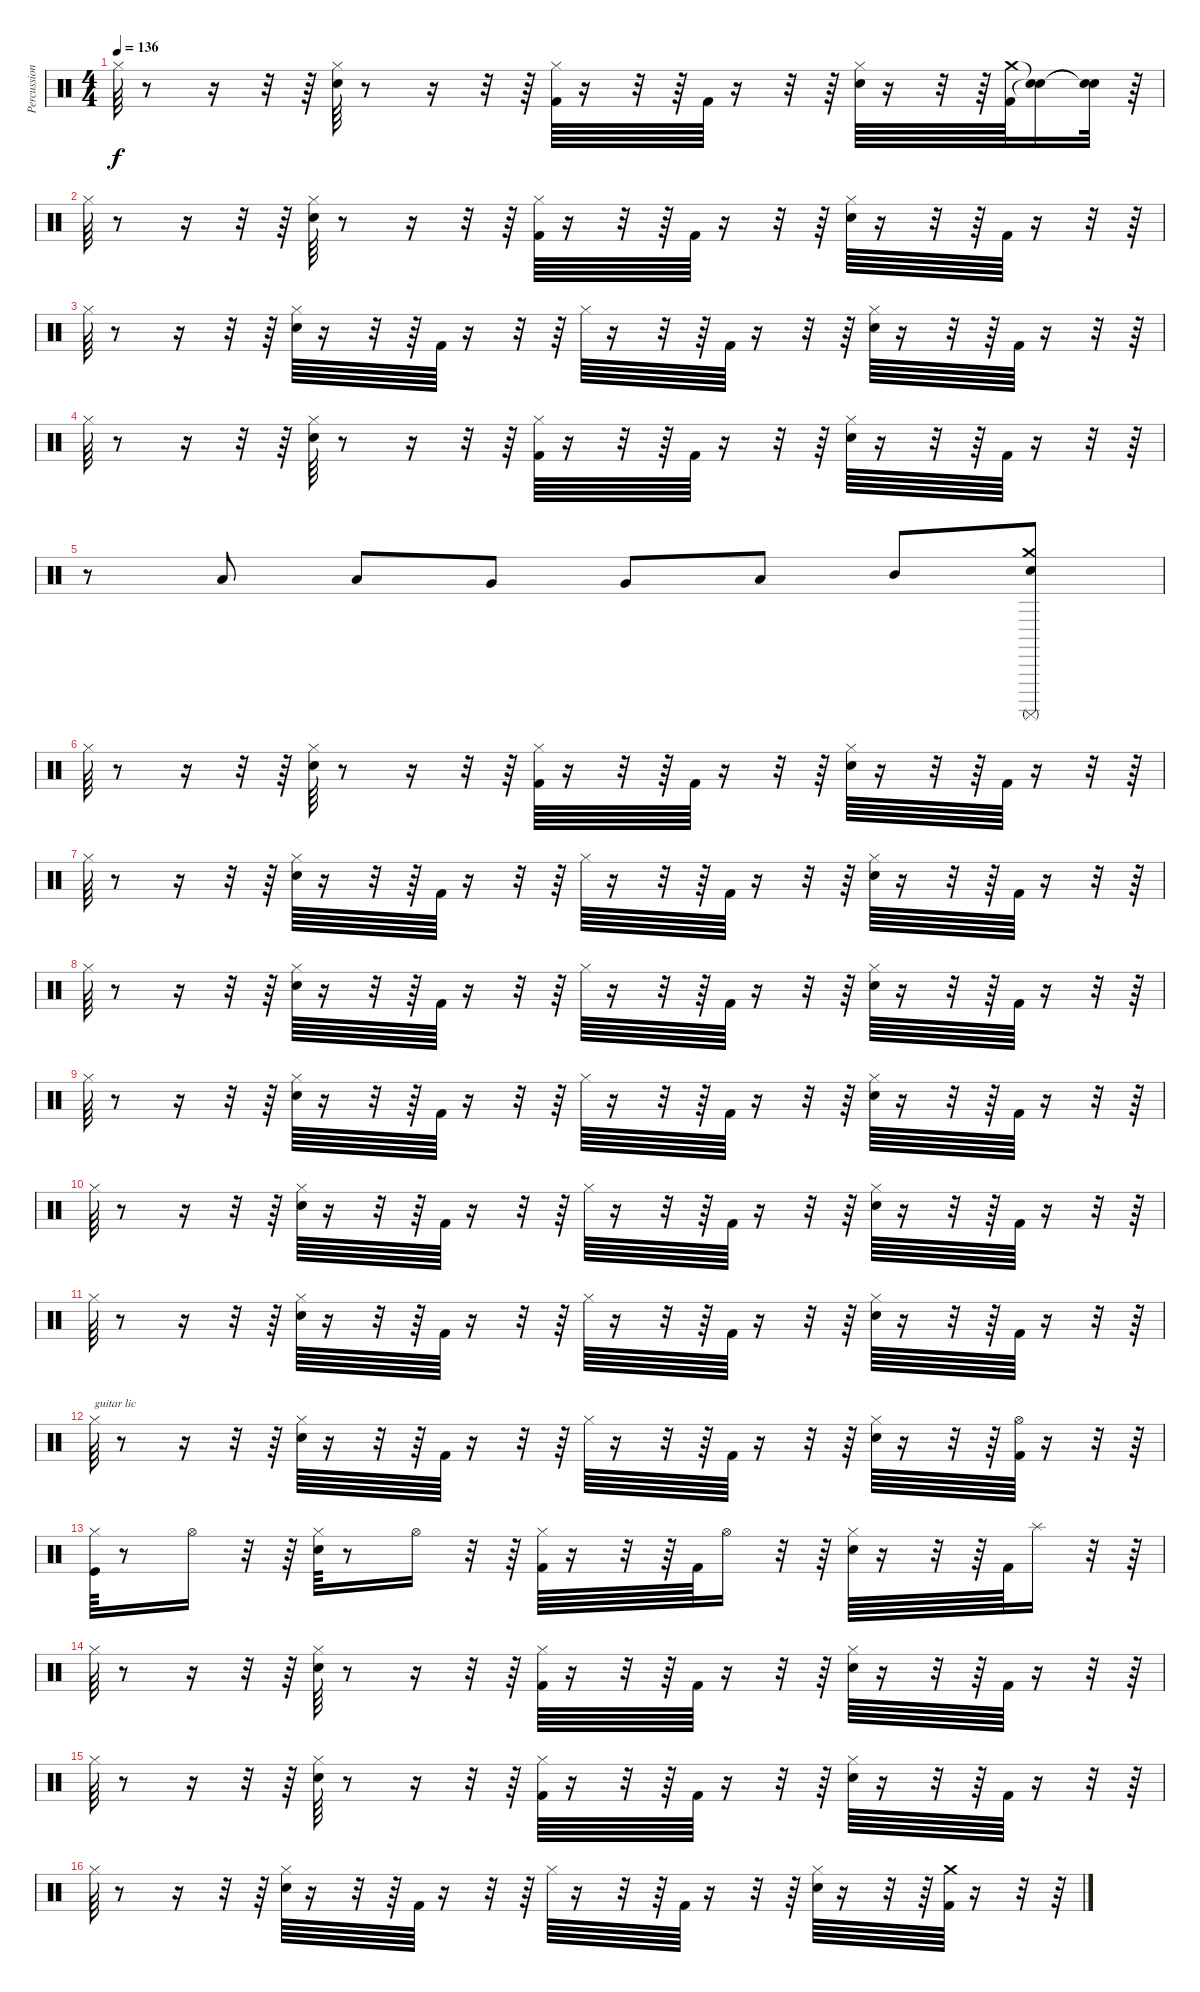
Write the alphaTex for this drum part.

\track ("Percussions" "Percussion") {instrument percussion}
\staff {score}
\articulation defaults
\ts (4 4)
\tempo 136
\clef neutral
\ks c "Hi-Hat (closed)".64{dy f}
r.8 r.16 r.32 r.64 ("Snare (hit) 2" "Hi-Hat (closed)").64 r.8 r.16 r.32 r.64 ("Kick (hit) 2" "Hi-Hat (closed)").64 r.16 r.32 r.64 "Kick (hit) 2".64 r.16 r.32 r.64 ("Snare (hit) 2" "Hi-Hat (closed)").64 r.16 r.32 r.64 ("Kick (hit) 2" "Crash medium (hit)").64 ("Snare (hit)"{t} "Snare (hit)"{t}).16 ("Snare (hit)"{t} "Snare (hit)"{t}).32 r.64 |
"Hi-Hat (closed)".64 r.8 r.16 r.32 r.64 ("Snare (hit) 2" "Hi-Hat (closed)").64 r.8 r.16 r.32 r.64 ("Kick (hit) 2" "Hi-Hat (closed)").64 r.16 r.32 r.64 "Kick (hit) 2".64 r.16 r.32 r.64 ("Snare (hit) 2" "Hi-Hat (closed)").64 r.16 r.32 r.64 "Kick (hit) 2".64 r.16 r.32 r.64 |
"Hi-Hat (closed)".64 r.8 r.16 r.32 r.64 ("Snare (hit) 2" "Hi-Hat (closed)").64 r.16 r.32 r.64 "Kick (hit) 2".64 r.16 r.32 r.64 "Hi-Hat (closed)".64 r.16 r.32 r.64 "Kick (hit) 2".64 r.16 r.32 r.64 ("Snare (hit) 2" "Hi-Hat (closed)").64 r.16 r.32 r.64 "Kick (hit) 2".64 r.16 r.32 r.64 |
"Hi-Hat (closed)".64 r.8 r.16 r.32 r.64 ("Snare (hit) 2" "Hi-Hat (closed)").64 r.8 r.16 r.32 r.64 ("Kick (hit) 2" "Hi-Hat (closed)").64 r.16 r.32 r.64 "Kick (hit) 2".64 r.16 r.32 r.64 ("Snare (hit) 2" "Hi-Hat (closed)").64 r.16 r.32 r.64 "Kick (hit) 2".64 r.16 r.32 r.64 |
r.8 "Low Floor Tom (hit)".8 "Low Floor Tom (hit)".8 "Very Low Tom (hit)".8 "Very Low Tom (hit)".8 "Low Tom (hit)".8 "Mid Tom (hit)".8 ("Snare (hit) 2" "Crash medium (hit)" "Surdo (mute)").8 |
"Hi-Hat (closed)".64 r.8 r.16 r.32 r.64 ("Snare (hit) 2" "Hi-Hat (closed)").64 r.8 r.16 r.32 r.64 ("Kick (hit) 2" "Hi-Hat (closed)").64 r.16 r.32 r.64 "Kick (hit) 2".64 r.16 r.32 r.64 ("Snare (hit) 2" "Hi-Hat (closed)").64 r.16 r.32 r.64 "Kick (hit) 2".64 r.16 r.32 r.64 |
"Hi-Hat (closed)".64 r.8 r.16 r.32 r.64 ("Snare (hit) 2" "Hi-Hat (closed)").64 r.16 r.32 r.64 "Kick (hit) 2".64 r.16 r.32 r.64 "Hi-Hat (closed)".64 r.16 r.32 r.64 "Kick (hit) 2".64 r.16 r.32 r.64 ("Snare (hit) 2" "Hi-Hat (closed)").64 r.16 r.32 r.64 "Kick (hit) 2".64 r.16 r.32 r.64 |
"Hi-Hat (closed)".64 r.8 r.16 r.32 r.64 ("Snare (hit) 2" "Hi-Hat (closed)").64 r.16 r.32 r.64 "Kick (hit) 2".64 r.16 r.32 r.64 "Hi-Hat (closed)".64 r.16 r.32 r.64 "Kick (hit) 2".64 r.16 r.32 r.64 ("Snare (hit) 2" "Hi-Hat (closed)").64 r.16 r.32 r.64 "Kick (hit) 2".64 r.16 r.32 r.64 |
"Hi-Hat (closed)".64 r.8 r.16 r.32 r.64 ("Snare (hit) 2" "Hi-Hat (closed)").64 r.16 r.32 r.64 "Kick (hit) 2".64 r.16 r.32 r.64 "Hi-Hat (closed)".64 r.16 r.32 r.64 "Kick (hit) 2".64 r.16 r.32 r.64 ("Snare (hit) 2" "Hi-Hat (closed)").64 r.16 r.32 r.64 "Kick (hit) 2".64 r.16 r.32 r.64 |
"Hi-Hat (closed)".64 r.8 r.16 r.32 r.64 ("Snare (hit) 2" "Hi-Hat (closed)").64 r.16 r.32 r.64 "Kick (hit) 2".64 r.16 r.32 r.64 "Hi-Hat (closed)".64 r.16 r.32 r.64 "Kick (hit) 2".64 r.16 r.32 r.64 ("Snare (hit) 2" "Hi-Hat (closed)").64 r.16 r.32 r.64 "Kick (hit) 2".64 r.16 r.32 r.64 |
"Hi-Hat (closed)".64 r.8 r.16 r.32 r.64 ("Snare (hit) 2" "Hi-Hat (closed)").64 r.16 r.32 r.64 "Kick (hit) 2".64 r.16 r.32 r.64 "Hi-Hat (closed)".64 r.16 r.32 r.64 "Kick (hit) 2".64 r.16 r.32 r.64 ("Snare (hit) 2" "Hi-Hat (closed)").64 r.16 r.32 r.64 "Kick (hit) 2".64 r.16 r.32 r.64 |
"Hi-Hat (closed)".64{txt "guitar lic"} r.8 r.16 r.32 r.64 ("Snare (hit) 2" "Hi-Hat (closed)").64 r.16 r.32 r.64 "Kick (hit) 2".64 r.16 r.32 r.64 "Hi-Hat (closed)".64 r.16 r.32 r.64 "Kick (hit) 2".64 r.16 r.32 r.64 ("Snare (hit) 2" "Hi-Hat (closed)").64 r.16 r.32 r.64 ("Kick (hit) 2" "Hi-Hat (open)").64 r.16 r.32 r.64 |
("Kick (hit)" "Hi-Hat (closed)").64 r.8 "Hi-Hat (open)".16 r.32 r.64 ("Snare (hit) 2" "Hi-Hat (closed)").64 r.8 "Hi-Hat (open)".16 r.32 r.64 ("Kick (hit) 2" "Hi-Hat (closed)").64 r.16 r.32 r.64 "Kick (hit) 2".64 "Hi-Hat (open)".16 r.32 r.64 ("Snare (hit) 2" "Hi-Hat (closed)").64 r.16 r.32 r.64 "Kick (hit) 2".64 "Splash (hit)".16 r.32 r.64 |
"Hi-Hat (closed)".64 r.8 r.16 r.32 r.64 ("Snare (hit) 2" "Hi-Hat (closed)").64 r.8 r.16 r.32 r.64 ("Kick (hit) 2" "Hi-Hat (closed)").64 r.16 r.32 r.64 "Kick (hit) 2".64 r.16 r.32 r.64 ("Snare (hit) 2" "Hi-Hat (closed)").64 r.16 r.32 r.64 "Kick (hit) 2".64 r.16 r.32 r.64 |
"Hi-Hat (closed)".64 r.8 r.16 r.32 r.64 ("Snare (hit) 2" "Hi-Hat (closed)").64 r.8 r.16 r.32 r.64 ("Kick (hit) 2" "Hi-Hat (closed)").64 r.16 r.32 r.64 "Kick (hit) 2".64 r.16 r.32 r.64 ("Snare (hit) 2" "Hi-Hat (closed)").64 r.16 r.32 r.64 "Kick (hit) 2".64 r.16 r.32 r.64 |
"Hi-Hat (closed)".64 r.8 r.16 r.32 r.64 ("Snare (hit) 2" "Hi-Hat (closed)").64 r.16 r.32 r.64 "Kick (hit) 2".64 r.16 r.32 r.64 "Hi-Hat (closed)".64 r.16 r.32 r.64 "Kick (hit) 2".64 r.16 r.32 r.64 ("Snare (hit) 2" "Hi-Hat (closed)").64 r.16 r.32 r.64 ("Kick (hit) 2" "Crash medium (hit)").64 r.16 r.32 r.64
